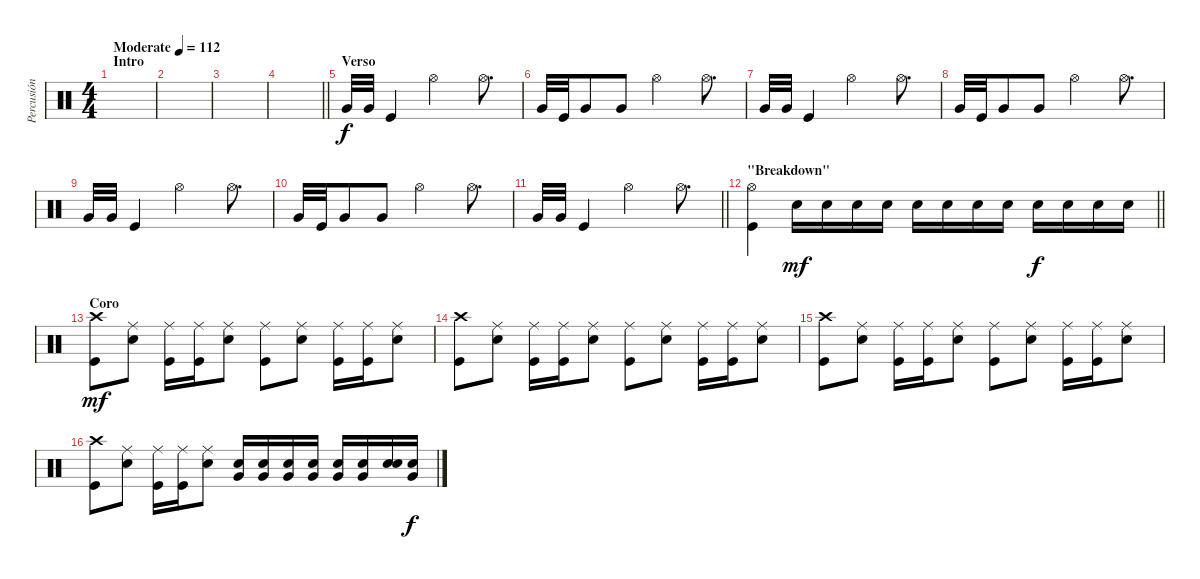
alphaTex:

\track ("Percusión" "Percusión") {instrument percussion}
\staff {score}
\articulation defaults
\ts (4 4)
\section ("" "Intro")
\tempo (112 "Moderate")
\clef neutral
\ks c
|
|
|
\barLineRight lightlight
|
\section ("" "Verso")
"Very Low Tom (hit)".32 "Very Low Tom (hit)".32 "Kick (hit)".4 "Hi-Hat (open)".2 "Hi-Hat (open)".8{d} |
"Very Low Tom (hit)".32 "Kick (hit)".32 "Very Low Tom (hit)".8 "Very Low Tom (hit)".8 "Hi-Hat (open)".2 "Hi-Hat (open)".8{d} |
"Very Low Tom (hit)".32 "Very Low Tom (hit)".32 "Kick (hit)".4 "Hi-Hat (open)".2 "Hi-Hat (open)".8{d} |
"Very Low Tom (hit)".32 "Kick (hit)".32 "Very Low Tom (hit)".8 "Very Low Tom (hit)".8 "Hi-Hat (open)".2 "Hi-Hat (open)".8{d} |
"Very Low Tom (hit)".32 "Very Low Tom (hit)".32 "Kick (hit)".4 "Hi-Hat (open)".2 "Hi-Hat (open)".8{d} |
"Very Low Tom (hit)".32 "Kick (hit)".32 "Very Low Tom (hit)".8 "Very Low Tom (hit)".8 "Hi-Hat (open)".2 "Hi-Hat (open)".8{d} |
\barLineRight lightlight "Very Low Tom (hit)".32 "Very Low Tom (hit)".32 "Kick (hit)".4 "Hi-Hat (open)".2 "Hi-Hat (open)".8{d}
|
\section ("" "\"Breakdown\"")
\barLineRight lightlight
("Hi-Hat (open)" "Kick (hit)").4 "Snare (hit) 2".16{dy mf} "Snare (hit) 2".16 "Snare (hit) 2".16 "Snare (hit) 2".16 "Snare (hit) 2".16 "Snare (hit) 2".16 "Snare (hit) 2".16 "Snare (hit) 2".16 "Snare (hit) 2".16{dy f} "Snare (hit) 2".16 "Snare (hit) 2".16 "Snare (hit) 2".16 |
\section ("" "Coro")
("Crash high (hit)" "Kick (hit)").8{dy mf} ("Ride (middle)" "Snare (hit) 2").8 ("Ride (middle)" "Kick (hit)").16 ("Ride (middle)" "Kick (hit)").16 ("Ride (middle)" "Snare (hit) 2").8 ("Ride (middle)" "Kick (hit)").8 ("Ride (middle)" "Snare (hit) 2").8 ("Ride (middle)" "Kick (hit)").16 ("Ride (middle)" "Kick (hit)").16 ("Ride (middle)" "Snare (hit) 2").8 |
("Crash high (hit)" "Kick (hit)").8 ("Ride (middle)" "Snare (hit) 2").8 ("Ride (middle)" "Kick (hit)").16 ("Ride (middle)" "Kick (hit)").16 ("Ride (middle)" "Snare (hit) 2").8 ("Ride (middle)" "Kick (hit)").8 ("Ride (middle)" "Snare (hit) 2").8 ("Ride (middle)" "Kick (hit)").16 ("Ride (middle)" "Kick (hit)").16 ("Ride (middle)" "Snare (hit) 2").8 |
("Crash high (hit)" "Kick (hit)").8 ("Ride (middle)" "Snare (hit) 2").8 ("Ride (middle)" "Kick (hit)").16 ("Ride (middle)" "Kick (hit)").16 ("Ride (middle)" "Snare (hit) 2").8 ("Ride (middle)" "Kick (hit)").8 ("Ride (middle)" "Snare (hit) 2").8 ("Ride (middle)" "Kick (hit)").16 ("Ride (middle)" "Kick (hit)").16 ("Ride (middle)" "Snare (hit) 2").8 |
("Crash high (hit)" "Kick (hit)").8 ("Ride (middle)" "Snare (hit) 2").8 ("Ride (middle)" "Kick (hit)").16 ("Ride (middle)" "Kick (hit)").16 ("Ride (middle)" "Snare (hit) 2").8 ("Very Low Tom (hit)" "Snare (hit) 2").16 ("Very Low Tom (hit)" "Snare (hit) 2").16 ("Very Low Tom (hit)" "Snare (hit) 2").16 ("Very Low Tom (hit)" "Snare (hit) 2").16 ("Very Low Tom (hit)" "Snare (hit) 2").16 ("Very Low Tom (hit)" "Snare (hit) 2").16 ("Snare (hit) 2" "Snare (hit) 2").16 ("Very Low Tom (hit)" "Snare (hit) 2").16{dy f}
